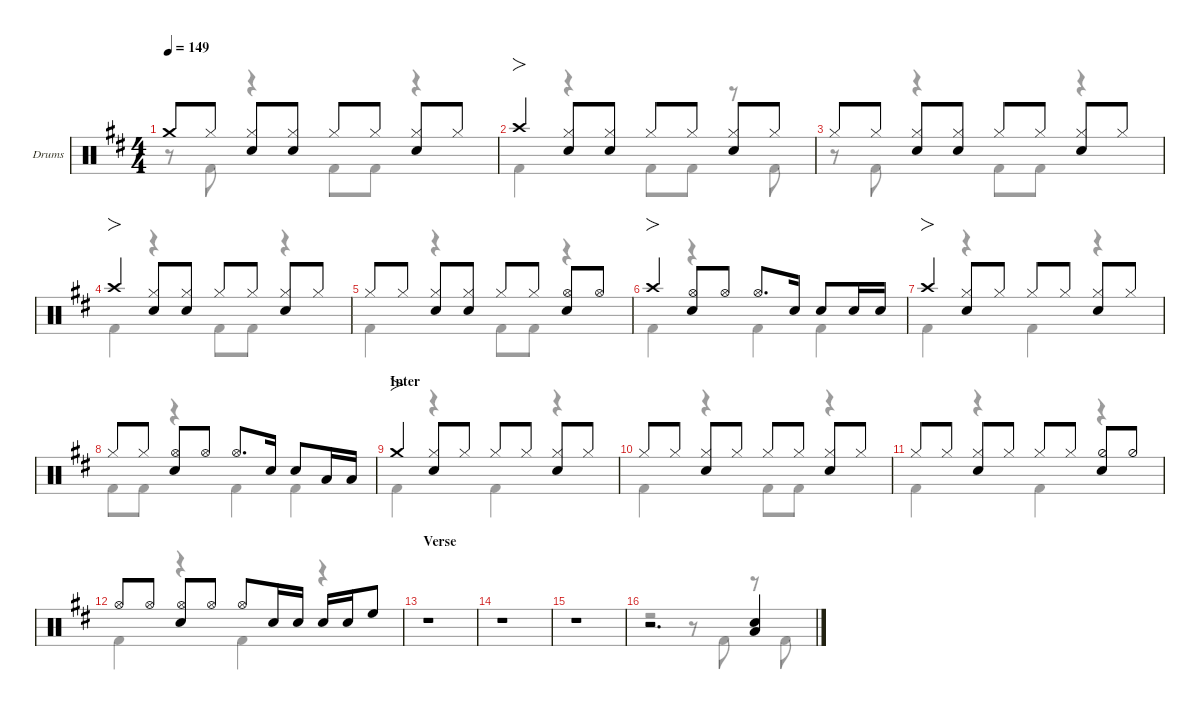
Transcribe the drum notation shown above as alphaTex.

\defaultSystemsLayout 4
\hideDynamics
\bracketExtendMode nobrackets
\firstSystemTrackNameOrientation horizontal
\track ("Drums" "Drums") {defaultSystemsLayout 4 instrument percussion}
\staff {score}
\articulation defaults
\voice
\ts (4 4)
\tempo 149
\clef neutral
\scale
0.244461
\ks d "Crash medium (hit)"{t acc forcenatural}.8{dy f beam Up} "Hi-Hat (closed)"{acc forcenatural}.8{dy mp beam Up}
("Hi-Hat (closed)"{acc forcenatural} "Snare (hit) 2"{acc forcenatural}).8{dy f beam Up} ("Hi-Hat (closed)"{acc forcenatural} "Snare (hit) 2"{acc forcenatural}).8{beam Up} "Hi-Hat (closed)"{acc forcenatural}.8{beam Up} "Hi-Hat (closed)"{acc forcenatural}.8{dy mp beam Up} ("Hi-Hat (closed)"{acc forcenatural} "Snare (hit) 2"{acc forcenatural}).8{dy f beam Up} "Hi-Hat (closed)"{acc forcenatural}.8{dy mp beam Up} |
\scale
0.24446 "Crash high (hit)"{acc forcenatural}.4{fo dy f beam Up} ("Hi-Hat (closed)"{acc forcenatural} "Snare (hit) 2"{acc forcenatural}).8{beam Up} ("Hi-Hat (closed)"{acc forcenatural} "Snare (hit) 2"{acc forcenatural}).8{beam Up} "Hi-Hat (closed)"{acc forcenatural}.8{beam Up} "Hi-Hat (closed)"{acc forcenatural}.8{dy mp beam Up} ("Hi-Hat (closed)"{acc forcenatural} "Snare (hit) 2"{acc forcenatural}).8{dy f beam Up} "Hi-Hat (closed)"{acc forcenatural}.8{dy mp beam Up} |
\scale
0.244461 "Hi-Hat (closed)"{acc forcenatural}.8{dy f beam Up} "Hi-Hat (closed)"{acc forcenatural}.8{dy mp beam Up} ("Hi-Hat (closed)"{acc forcenatural} "Snare (hit) 2"{acc forcenatural}).8{dy f beam Up} ("Hi-Hat (closed)"{acc forcenatural} "Snare (hit) 2"{acc forcenatural}).8{beam Up} "Hi-Hat (closed)"{acc forcenatural}.8{beam Up} "Hi-Hat (closed)"{acc forcenatural}.8{dy mp beam Up} ("Hi-Hat (closed)"{acc forcenatural} "Snare (hit) 2"{acc forcenatural}).8{dy f beam Up} "Hi-Hat (closed)"{acc forcenatural}.8{dy mp beam Up} |
\scale
0.348105 "Crash high (hit)"{acc forcenatural}.4{fo dy f beam Up} ("Hi-Hat (closed)"{acc forcenatural} "Snare (hit) 2"{acc forcenatural}).8{beam Up} ("Hi-Hat (closed)"{acc forcenatural} "Snare (hit) 2"{acc forcenatural}).8{beam Up} "Hi-Hat (closed)"{acc forcenatural}.8{beam Up} "Hi-Hat (closed)"{acc forcenatural}.8{dy mp beam Up} ("Hi-Hat (closed)"{acc forcenatural} "Snare (hit) 2"{acc forcenatural}).8{dy f beam Up} "Hi-Hat (closed)"{acc forcenatural}.8{dy mp beam Up} |
\scale
0.325947 "Hi-Hat (closed)"{acc forcenatural}.8{dy f beam Up} "Hi-Hat (closed)"{acc forcenatural}.8{dy mp beam Up} ("Hi-Hat (closed)"{acc forcenatural} "Snare (hit) 2"{acc forcenatural}).8{dy f beam Up} ("Hi-Hat (closed)"{acc forcenatural} "Snare (hit) 2"{acc forcenatural}).8{beam Up} "Hi-Hat (closed)"{acc forcenatural}.8{beam Up} "Hi-Hat (closed)"{acc forcenatural}.8{dy mp beam Up} ("Hi-Hat (open)"{acc forcenatural} "Snare (hit) 2"{acc forcenatural}).8{dy f beam Up} "Hi-Hat (open)"{acc forcenatural}.8{dy mf beam Up} |
\scale
0.325947 "Crash high (hit)"{acc forcenatural}.4{fo dy f beam Up} ("Hi-Hat (open)"{acc forcenatural} "Snare (hit) 2"{acc forcenatural}).8{beam Up} "Hi-Hat (open)"{acc forcenatural}.8{dy mf beam Up} "Hi-Hat (open)"{acc forcenatural}.8{d dy f beam Up} "Snare (hit) 2"{acc forcenatural}.16{dy mf beam Up beam split} "Snare (hit) 2"{acc forcenatural}.8{beam Up} "Snare (hit) 2"{acc forcenatural}.16{dy f beam Up} "Snare (hit) 2"{acc forcenatural}.16{beam Up} |
\scale
0.511079 "Crash high (hit)"{acc forcenatural}.4{fo beam Up} ("Hi-Hat (closed)"{acc forcenatural} "Snare (hit) 2"{acc forcenatural}).8{beam Up} "Hi-Hat (closed)"{acc forcenatural}.8{dy mp beam Up} "Hi-Hat (closed)"{acc forcenatural}.8{dy f beam Up} "Hi-Hat (closed)"{acc forcenatural}.8{dy mp beam Up} ("Hi-Hat (closed)"{acc forcenatural} "Snare (hit) 2"{acc forcenatural}).8{dy f beam Up} "Hi-Hat (closed)"{acc forcenatural}.8{dy mp beam Up} |
\scale
0.488921 "Hi-Hat (closed)"{acc forcenatural}.8{dy f beam Up} "Hi-Hat (closed)"{acc forcenatural}.8{dy mp beam Up} ("Hi-Hat (open)"{acc forcenatural} "Snare (hit) 2"{acc forcenatural}).8{dy f beam Up} "Hi-Hat (open)"{acc forcenatural}.8{dy mf beam Up} "Hi-Hat (open)"{acc forcenatural}.8{d dy f beam Up} "Snare (hit) 2"{acc forcenatural}.16{dy mf beam Up beam split} "Snare (hit) 2"{acc forcenatural}.8{beam Up} "Low Tom (hit)"{acc forcenatural}.16{dy f beam Up} "Low Tom (hit)"{acc forcenatural}.16{beam Up} |
\section ("" "Inter")
\scale
0.266618 "Crash medium (hit)"{acc forcenatural}.4{fo beam Up} ("Hi-Hat (closed)"{acc forcenatural} "Snare (hit) 2"{acc forcenatural}).8{beam Up} "Hi-Hat (closed)"{acc forcenatural}.8{dy mp beam Up} "Hi-Hat (closed)"{acc forcenatural}.8{dy f beam Up} "Hi-Hat (closed)"{acc forcenatural}.8{dy mp beam Up} ("Hi-Hat (closed)"{acc forcenatural} "Snare (hit) 2"{acc forcenatural}).8{dy f beam Up} "Hi-Hat (closed)"{acc forcenatural}.8{dy mp beam Up} |
\scale
0.244461 "Hi-Hat (closed)"{acc forcenatural}.8{dy f beam Up} "Hi-Hat (closed)"{acc forcenatural}.8{dy mp beam Up} ("Hi-Hat (closed)"{acc forcenatural} "Snare (hit) 2"{acc forcenatural}).8{dy f beam Up} "Hi-Hat (closed)"{acc forcenatural}.8{dy mp beam Up} "Hi-Hat (closed)"{acc forcenatural}.8{dy f beam Up} "Hi-Hat (closed)"{acc forcenatural}.8{dy mp beam Up} ("Hi-Hat (closed)"{acc forcenatural} "Snare (hit) 2"{acc forcenatural}).8{dy f beam Up} "Hi-Hat (closed)"{acc forcenatural}.8{dy mp beam Up} |
\scale
0.24446 "Hi-Hat (closed)"{acc forcenatural}.8{dy f beam Up} "Hi-Hat (closed)"{acc forcenatural}.8{dy mp beam Up} ("Hi-Hat (closed)"{acc forcenatural} "Snare (hit) 2"{acc forcenatural}).8{dy f beam Up} "Hi-Hat (closed)"{acc forcenatural}.8{dy mp beam Up} "Hi-Hat (closed)"{acc forcenatural}.8{dy f beam Up} "Hi-Hat (closed)"{acc forcenatural}.8{dy mp beam Up} ("Hi-Hat (half)"{acc forcenatural} "Snare (hit) 2"{acc forcenatural}).8{dy f beam Up} "Hi-Hat (half)"{acc forcenatural}.8{dy mf beam Up} |
\scale
0.244461 "Hi-Hat (open)"{acc forcenatural}.8{dy f beam Up} "Hi-Hat (open)"{acc forcenatural}.8{dy mf beam Up} ("Hi-Hat (open)"{acc forcenatural} "Snare (hit) 2"{acc forcenatural}).8{dy f beam Up} "Hi-Hat (open)"{acc forcenatural}.8{dy mf beam Up} "Hi-Hat (open)"{acc forcenatural}.8{dy f beam Up} "Snare (hit) 2"{acc forcenatural}.16{beam Up} "Snare (hit) 2"{acc forcenatural}.16{dy mf beam Up beam split} "Snare (hit) 2"{acc forcenatural}.16{dy f beam Up} "Snare (hit) 2"{acc forcenatural}.16{dy mf beam Up} "High Floor Tom (hit)"{acc forcenatural}.8{dy f beam Up} |
\section ("" "Verse")
\scale
0.266618 r.1{beam Up} |
\scale
0.244461 r.1{beam Up} |
\scale
0.24446 r.1{beam Up} |
\scale
0.244461 r.2{d beam Up} ("Low Tom (hit)"{acc forcenatural} "Snare (hit) 2"{acc forcenatural}).4{beam Up}
\voice
\clef neutral
\ottava regular
\simile none
\scale
0.244461
\ks d
r.8{dy f beam Down} "Kick (hit) 2"{acc forcenatural}.8{beam Down} r.4{beam Down} "Kick (hit) 2"{acc forcenatural}.8{beam Down} "Kick (hit) 2"{acc forcenatural}.8{beam Down} r.4{beam Down} |
\scale
0.24446 "Kick (hit) 2"{acc forcenatural}.4{beam Down} r.4{beam Down} "Kick (hit) 2"{acc forcenatural}.8{beam Down} "Kick (hit) 2"{acc forcenatural}.8{beam Down} r.8{beam Down} "Kick (hit) 2"{acc forcenatural}.8{beam Down} |
\scale
0.244461 r.8{beam Down} "Kick (hit) 2"{acc forcenatural}.8{beam Down} r.4{beam Down} "Kick (hit) 2"{acc forcenatural}.8{beam Down} "Kick (hit) 2"{acc forcenatural}.8{beam Down} r.4{beam Down} |
\scale
0.348105 "Kick (hit) 2"{acc forcenatural}.4{beam Down} r.4{beam Down} "Kick (hit) 2"{acc forcenatural}.8{beam Down} "Kick (hit) 2"{acc forcenatural}.8{beam Down} r.4{beam Down} |
\scale
0.325947 "Kick (hit) 2"{acc forcenatural}.4{beam Down} r.4{beam Down} "Kick (hit) 2"{acc forcenatural}.8{beam Down} "Kick (hit) 2"{acc forcenatural}.8{beam Down} r.4{beam Down} |
\scale
0.325947 "Kick (hit) 2"{acc forcenatural}.4{beam Down} r.4{beam Down} "Kick (hit) 2"{acc forcenatural}.4{beam Down} "Kick (hit) 2"{acc forcenatural}.4{beam Down} |
\scale
0.511079 "Kick (hit) 2"{acc forcenatural}.4{beam Down} r.4{beam Down} "Kick (hit) 2"{acc forcenatural}.4{beam Down} r.4{beam Down} |
\scale
0.488921 "Kick (hit) 2"{acc forcenatural}.8{beam Down} "Kick (hit) 2"{acc forcenatural}.8{beam Down} r.4{beam Down} "Kick (hit) 2"{acc forcenatural}.4{beam Down} "Kick (hit) 2"{acc forcenatural}.4{beam Down} |
\scale
0.266618 "Kick (hit) 2"{acc forcenatural}.4{beam Down} r.4{beam Down} "Kick (hit) 2"{acc forcenatural}.4{beam Down} r.4{beam Down} |
\scale
0.244461 "Kick (hit) 2"{acc forcenatural}.4{beam Down} r.4{beam Down} "Kick (hit) 2"{acc forcenatural}.8{beam Down} "Kick (hit) 2"{acc forcenatural}.8{beam Down} r.4{beam Down} |
\scale
0.24446 "Kick (hit) 2"{acc forcenatural}.4{beam Down} r.4{beam Down} "Kick (hit) 2"{acc forcenatural}.4{beam Down} r.4{beam Down} |
\scale
0.244461 "Kick (hit) 2"{acc forcenatural}.4{beam Down} r.4{beam Down} "Kick (hit) 2"{acc forcenatural}.4{beam Down} r.4{beam Down} |
\scale
0.266618 r.1{beam Down} |
\scale
0.244461 r.1{beam Down} |
\scale
0.24446 r.1{beam Down} |
\scale
0.244461 r.2{beam Down} r.8{beam Down} "Kick (hit) 2"{acc forcenatural}.8{beam Down} r.8{beam Down} "Kick (hit) 2"{acc forcenatural}.8{beam Down}
